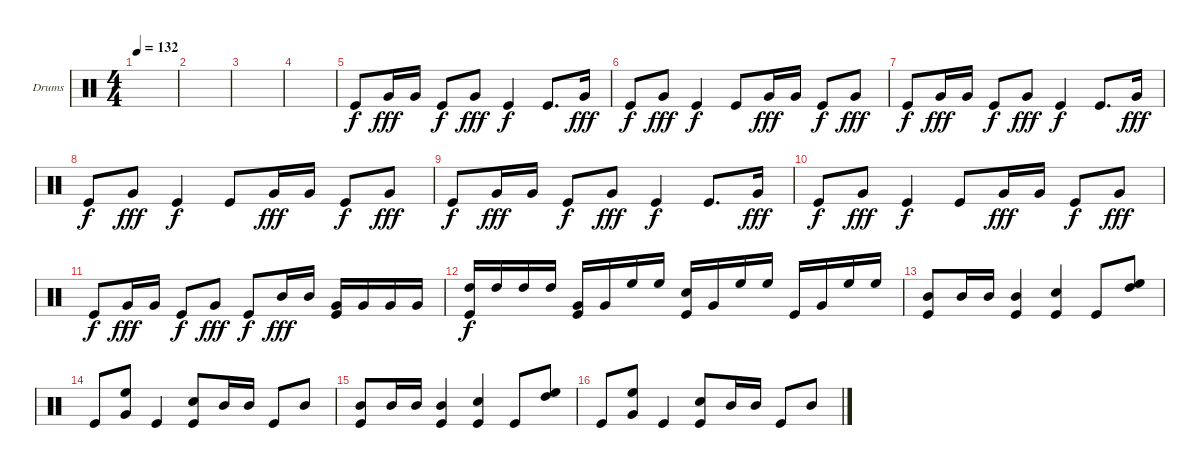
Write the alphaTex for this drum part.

\defaultSystemsLayout 4
\bracketExtendMode groupsimilarinstruments
\firstSystemTrackNameOrientation horizontal
\otherSystemsTrackNameOrientation horizontal
\track ("Drumkit" "Drums") {instrument percussion}
\staff {score}
\articulation defaults
\ts (4 4)
\tempo 132
\clef neutral
\scale
0.333333
\ks c
|
\scale
0.333333 |
\scale
0.333333 |
\scale
0.333333 |
\scale
0.333333 "Kick (hit)".8 "Very Low Tom (hit)".16{dy fff} "Very Low Tom (hit)".16 "Kick (hit)".8{dy f} "Very Low Tom (hit)".8{dy fff} "Kick (hit)".4{dy f} "Kick (hit)".8{d} "Very Low Tom (hit)".16{dy fff} |
\scale
0.333333 "Kick (hit)".8{dy f} "Very Low Tom (hit)".8{dy fff} "Kick (hit)".4{dy f} "Kick (hit)".8 "Very Low Tom (hit)".16{dy fff} "Very Low Tom (hit)".16 "Kick (hit)".8{dy f} "Very Low Tom (hit)".8{dy fff} |
\scale
0.333333 "Kick (hit)".8{dy f} "Very Low Tom (hit)".16{dy fff} "Very Low Tom (hit)".16 "Kick (hit)".8{dy f} "Very Low Tom (hit)".8{dy fff} "Kick (hit)".4{dy f} "Kick (hit)".8{d} "Very Low Tom (hit)".16{dy fff} |
\scale
0.333333 "Kick (hit)".8{dy f} "Very Low Tom (hit)".8{dy fff} "Kick (hit)".4{dy f} "Kick (hit)".8 "Very Low Tom (hit)".16{dy fff} "Very Low Tom (hit)".16 "Kick (hit)".8{dy f} "Very Low Tom (hit)".8{dy fff} |
\scale
0.333333 "Kick (hit)".8{dy f} "Very Low Tom (hit)".16{dy fff} "Very Low Tom (hit)".16 "Kick (hit)".8{dy f} "Very Low Tom (hit)".8{dy fff} "Kick (hit)".4{dy f} "Kick (hit)".8{d} "Very Low Tom (hit)".16{dy fff} |
\scale
0.333333 "Kick (hit)".8{dy f} "Very Low Tom (hit)".8{dy fff} "Kick (hit)".4{dy f} "Kick (hit)".8 "Very Low Tom (hit)".16{dy fff} "Very Low Tom (hit)".16 "Kick (hit)".8{dy f} "Very Low Tom (hit)".8{dy fff} |
\scale
0.333333 "Kick (hit)".8{dy f} "Very Low Tom (hit)".16{dy fff} "Very Low Tom (hit)".16 "Kick (hit)".8{dy f} "Very Low Tom (hit)".8{dy fff} "Kick (hit)".8{dy f} "Mid Tom (hit)".16{dy fff} "Mid Tom (hit)".16 ("Kick (hit)" "Very Low Tom (hit)").16 "Very Low Tom (hit)".16 "Very Low Tom (hit)".16 "Very Low Tom (hit)".16 |
\scale
0.333333 ("Kick (hit)" "High Tom (hit)").16{dy f} "High Tom (hit)".16 "High Tom (hit)".16 "High Tom (hit)".16 ("Kick (hit)" "Very Low Tom (hit)").16 "Very Low Tom (hit)".16 "High Floor Tom (hit)".16 "High Floor Tom (hit)".16 ("Kick (hit)" "Snare (hit) 2").16 "Very Low Tom (hit)".16 "High Floor Tom (hit)".16 "High Floor Tom (hit)".16 "Kick (hit)".16 "Very Low Tom (hit)".16 "High Floor Tom (hit)".16 "High Floor Tom (hit)".16 |
\scale
0.333333 ("Kick (hit)" "Mid Tom (hit)").8 "Mid Tom (hit)".16 "Mid Tom (hit)".16 ("Mid Tom (hit)" "Kick (hit)").4 ("Kick (hit)" "Snare (hit) 2").4 "Kick (hit)".8 ("High Floor Tom (hit)" "High Tom (hit)").8 |
\scale
0.333333 "Kick (hit)".8 ("Very Low Tom (hit)" "High Floor Tom (hit)").8 "Kick (hit)".4 ("Kick (hit)" "Snare (hit) 2").8 "Mid Tom (hit)".16 "Mid Tom (hit)".16 "Kick (hit)".8 "Mid Tom (hit)".8 |
\scale
0.333333 ("Kick (hit)" "Mid Tom (hit)").8 "Mid Tom (hit)".16 "Mid Tom (hit)".16 ("Mid Tom (hit)" "Kick (hit)").4 ("Kick (hit)" "Snare (hit) 2").4 "Kick (hit)".8 ("High Floor Tom (hit)" "High Tom (hit)").8 |
\scale
0.333333 "Kick (hit)".8 ("Very Low Tom (hit)" "High Floor Tom (hit)").8 "Kick (hit)".4 ("Kick (hit)" "Snare (hit) 2").8 "Mid Tom (hit)".16 "Mid Tom (hit)".16 "Kick (hit)".8 "Mid Tom (hit)".8
